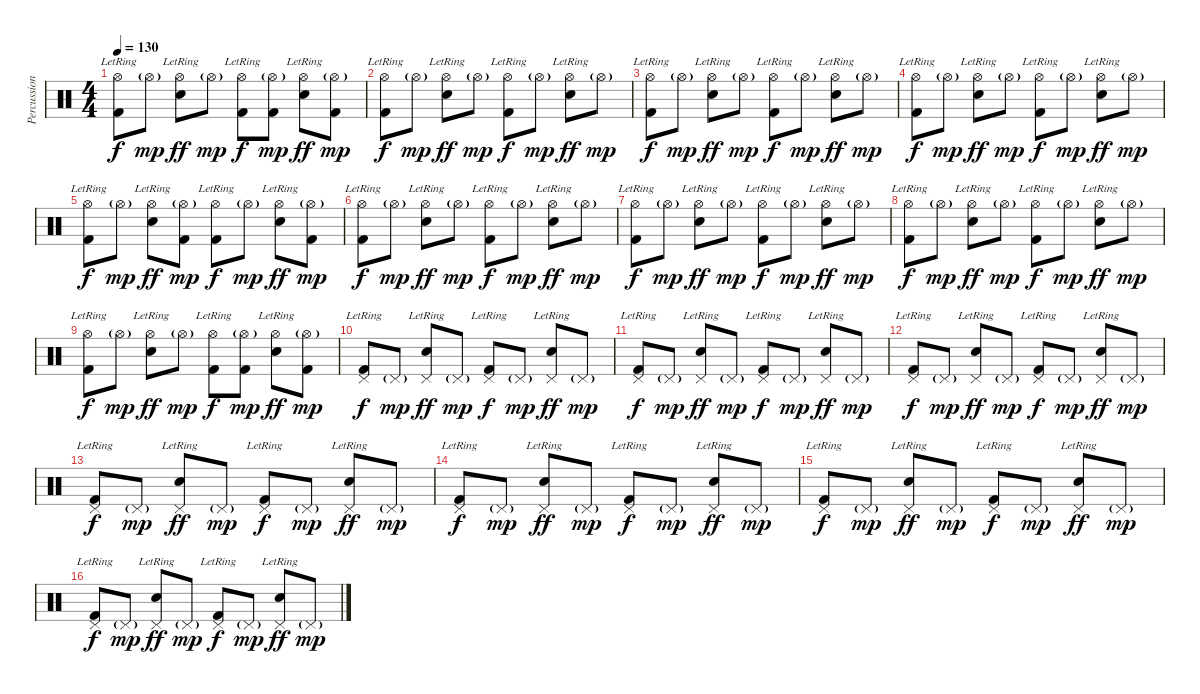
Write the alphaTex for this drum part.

\track ("Percussion" "Percussion") {instrument percussion}
\staff {score}
\articulation defaults
\ts (4 4)
\tempo 130
\clef neutral
\ks c
("Hi-Hat (open)"{lr} "Kick (hit) 2").8{dy f} "Hi-Hat (open)"{g}.8{dy mp} ("Hi-Hat (open)"{lr} "Snare (hit) 2").8{dy ff} "Hi-Hat (open)"{g}.8{dy mp} ("Hi-Hat (open)"{lr} "Kick (hit) 2").8{dy f} ("Hi-Hat (open)"{g} "Kick (hit) 2").8{dy mp} ("Hi-Hat (open)"{lr} "Snare (hit) 2").8{dy ff} ("Hi-Hat (open)"{g} "Kick (hit) 2").8{dy mp} |
("Hi-Hat (open)"{lr} "Kick (hit) 2").8{dy f} "Hi-Hat (open)"{g}.8{dy mp} ("Hi-Hat (open)"{lr} "Snare (hit) 2").8{dy ff} "Hi-Hat (open)"{g}.8{dy mp} ("Hi-Hat (open)"{lr} "Kick (hit) 2").8{dy f} "Hi-Hat (open)"{g}.8{dy mp} ("Hi-Hat (open)"{lr} "Snare (hit) 2").8{dy ff} "Hi-Hat (open)"{g}.8{dy mp} |
("Hi-Hat (open)"{lr} "Kick (hit) 2").8{dy f} "Hi-Hat (open)"{g}.8{dy mp} ("Hi-Hat (open)"{lr} "Snare (hit) 2").8{dy ff} "Hi-Hat (open)"{g}.8{dy mp} ("Hi-Hat (open)"{lr} "Kick (hit) 2").8{dy f} "Hi-Hat (open)"{g}.8{dy mp} ("Hi-Hat (open)"{lr} "Snare (hit) 2").8{dy ff} "Hi-Hat (open)"{g}.8{dy mp} |
("Hi-Hat (open)"{lr} "Kick (hit) 2").8{dy f} "Hi-Hat (open)"{g}.8{dy mp} ("Hi-Hat (open)"{lr} "Snare (hit) 2").8{dy ff} "Hi-Hat (open)"{g}.8{dy mp} ("Hi-Hat (open)"{lr} "Kick (hit) 2").8{dy f} "Hi-Hat (open)"{g}.8{dy mp} ("Hi-Hat (open)"{lr} "Snare (hit) 2").8{dy ff} "Hi-Hat (open)"{g}.8{dy mp} |
("Hi-Hat (open)"{lr} "Kick (hit) 2").8{dy f} "Hi-Hat (open)"{g}.8{dy mp} ("Hi-Hat (open)"{lr} "Snare (hit) 2").8{dy ff} ("Hi-Hat (open)"{g} "Kick (hit) 2").8{dy mp} ("Hi-Hat (open)"{lr} "Kick (hit) 2").8{dy f} "Hi-Hat (open)"{g}.8{dy mp} ("Hi-Hat (open)"{lr} "Snare (hit) 2").8{dy ff} ("Hi-Hat (open)"{g} "Kick (hit) 2").8{dy mp} |
("Hi-Hat (open)"{lr} "Kick (hit) 2").8{dy f} "Hi-Hat (open)"{g}.8{dy mp} ("Hi-Hat (open)"{lr} "Snare (hit) 2").8{dy ff} "Hi-Hat (open)"{g}.8{dy mp} ("Hi-Hat (open)"{lr} "Kick (hit) 2").8{dy f} "Hi-Hat (open)"{g}.8{dy mp} ("Hi-Hat (open)"{lr} "Snare (hit) 2").8{dy ff} "Hi-Hat (open)"{g}.8{dy mp} |
("Hi-Hat (open)"{lr} "Kick (hit) 2").8{dy f} "Hi-Hat (open)"{g}.8{dy mp} ("Hi-Hat (open)"{lr} "Snare (hit) 2").8{dy ff} "Hi-Hat (open)"{g}.8{dy mp} ("Hi-Hat (open)"{lr} "Kick (hit) 2").8{dy f} "Hi-Hat (open)"{g}.8{dy mp} ("Hi-Hat (open)"{lr} "Snare (hit) 2").8{dy ff} "Hi-Hat (open)"{g}.8{dy mp} |
("Hi-Hat (open)"{lr} "Kick (hit) 2").8{dy f} "Hi-Hat (open)"{g}.8{dy mp} ("Hi-Hat (open)"{lr} "Snare (hit) 2").8{dy ff} "Hi-Hat (open)"{g}.8{dy mp} ("Hi-Hat (open)"{lr} "Kick (hit) 2").8{dy f} "Hi-Hat (open)"{g}.8{dy mp} ("Hi-Hat (open)"{lr} "Snare (hit) 2").8{dy ff} "Hi-Hat (open)"{g}.8{dy mp} |
("Hi-Hat (open)"{lr} "Kick (hit) 2").8{dy f} "Hi-Hat (open)"{g}.8{dy mp} ("Hi-Hat (open)"{lr} "Snare (hit) 2").8{dy ff} "Hi-Hat (open)"{g}.8{dy mp} ("Hi-Hat (open)"{lr} "Kick (hit) 2").8{dy f} ("Hi-Hat (open)"{g} "Kick (hit) 2").8{dy mp} ("Hi-Hat (open)"{lr} "Snare (hit) 2").8{dy ff} ("Hi-Hat (open)"{g} "Kick (hit) 2").8{dy mp} |
("Pedal Hi-Hat (hit)"{lr} "Kick (hit) 2").8{dy f} "Pedal Hi-Hat (hit)"{g}.8{dy mp} ("Pedal Hi-Hat (hit)"{lr} "Snare (hit) 2").8{dy ff} "Pedal Hi-Hat (hit)"{g}.8{dy mp} ("Pedal Hi-Hat (hit)"{lr} "Kick (hit) 2").8{dy f} "Pedal Hi-Hat (hit)"{g}.8{dy mp} ("Pedal Hi-Hat (hit)"{lr} "Snare (hit) 2").8{dy ff} "Pedal Hi-Hat (hit)"{g}.8{dy mp} |
("Pedal Hi-Hat (hit)"{lr} "Kick (hit) 2").8{dy f} "Pedal Hi-Hat (hit)"{g}.8{dy mp} ("Pedal Hi-Hat (hit)"{lr} "Snare (hit) 2").8{dy ff} "Pedal Hi-Hat (hit)"{g}.8{dy mp} ("Pedal Hi-Hat (hit)"{lr} "Kick (hit) 2").8{dy f} "Pedal Hi-Hat (hit)"{g}.8{dy mp} ("Pedal Hi-Hat (hit)"{lr} "Snare (hit) 2").8{dy ff} "Pedal Hi-Hat (hit)"{g}.8{dy mp} |
("Pedal Hi-Hat (hit)"{lr} "Kick (hit) 2").8{dy f} "Pedal Hi-Hat (hit)"{g}.8{dy mp} ("Pedal Hi-Hat (hit)"{lr} "Snare (hit) 2").8{dy ff} "Pedal Hi-Hat (hit)"{g}.8{dy mp} ("Pedal Hi-Hat (hit)"{lr} "Kick (hit) 2").8{dy f} "Pedal Hi-Hat (hit)"{g}.8{dy mp} ("Pedal Hi-Hat (hit)"{lr} "Snare (hit) 2").8{dy ff} "Pedal Hi-Hat (hit)"{g}.8{dy mp} |
("Pedal Hi-Hat (hit)"{lr} "Kick (hit) 2").8{dy f} "Pedal Hi-Hat (hit)"{g}.8{dy mp} ("Pedal Hi-Hat (hit)"{lr} "Snare (hit) 2").8{dy ff} "Pedal Hi-Hat (hit)"{g}.8{dy mp} ("Pedal Hi-Hat (hit)"{lr} "Kick (hit) 2").8{dy f} "Pedal Hi-Hat (hit)"{g}.8{dy mp} ("Pedal Hi-Hat (hit)"{lr} "Snare (hit) 2").8{dy ff} "Pedal Hi-Hat (hit)"{g}.8{dy mp} |
("Pedal Hi-Hat (hit)"{lr} "Kick (hit) 2").8{dy f} "Pedal Hi-Hat (hit)"{g}.8{dy mp} ("Pedal Hi-Hat (hit)"{lr} "Snare (hit) 2").8{dy ff} "Pedal Hi-Hat (hit)"{g}.8{dy mp} ("Pedal Hi-Hat (hit)"{lr} "Kick (hit) 2").8{dy f} "Pedal Hi-Hat (hit)"{g}.8{dy mp} ("Pedal Hi-Hat (hit)"{lr} "Snare (hit) 2").8{dy ff} "Pedal Hi-Hat (hit)"{g}.8{dy mp} |
("Pedal Hi-Hat (hit)"{lr} "Kick (hit) 2").8{dy f} "Pedal Hi-Hat (hit)"{g}.8{dy mp} ("Pedal Hi-Hat (hit)"{lr} "Snare (hit) 2").8{dy ff} "Pedal Hi-Hat (hit)"{g}.8{dy mp} ("Pedal Hi-Hat (hit)"{lr} "Kick (hit) 2").8{dy f} "Pedal Hi-Hat (hit)"{g}.8{dy mp} ("Pedal Hi-Hat (hit)"{lr} "Snare (hit) 2").8{dy ff} "Pedal Hi-Hat (hit)"{g}.8{dy mp} |
("Pedal Hi-Hat (hit)"{lr} "Kick (hit) 2").8{dy f} "Pedal Hi-Hat (hit)"{g}.8{dy mp} ("Pedal Hi-Hat (hit)"{lr} "Snare (hit) 2").8{dy ff} "Pedal Hi-Hat (hit)"{g}.8{dy mp} ("Pedal Hi-Hat (hit)"{lr} "Kick (hit) 2").8{dy f} "Pedal Hi-Hat (hit)"{g}.8{dy mp} ("Pedal Hi-Hat (hit)"{lr} "Snare (hit) 2").8{dy ff} "Pedal Hi-Hat (hit)"{g}.8{dy mp}
